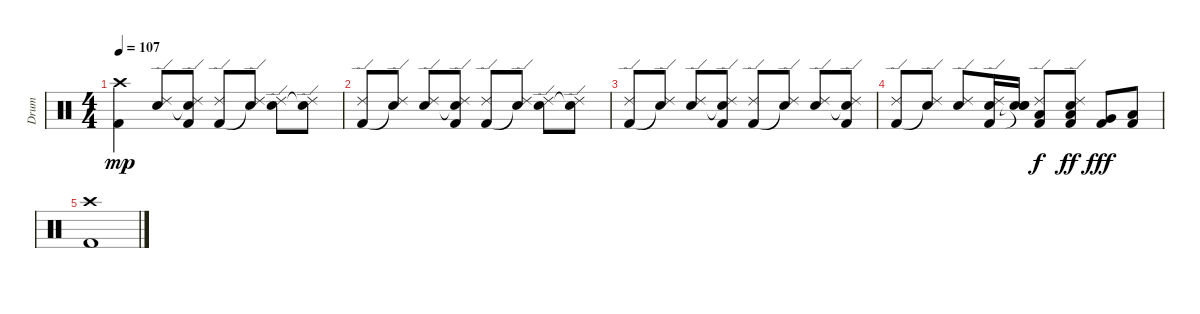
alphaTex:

\track ("Drum" "Drum") {instrument percussion}
\staff {score}
\articulation defaults
\ts (4 4)
\tempo 107
\clef neutral
\ks c
("Kick (hit) 2" "Crash high (hit)").4{dy mp} ("Electric Snare (hit)" "Ride (edge) 2").8 ("Snare (hit)"{t} "Kick (hit) 2" "Ride (edge) 2").8 ("Kick (hit) 2" "Ride (edge) 2").8 ("Snare (hit)"{t} "Ride (edge) 2").8 ("Electric Snare (hit)" "Ride (edge) 2").8 ("Snare (hit)"{t} "Ride (edge) 2").8 |
("Kick (hit) 2" "Ride (edge) 2").8 ("Snare (hit)"{t} "Ride (edge) 2").8 ("Electric Snare (hit)" "Ride (edge) 2").8 ("Snare (hit)"{t} "Kick (hit) 2" "Ride (edge) 2").8 ("Kick (hit) 2" "Ride (edge) 2").8 ("Snare (hit)"{t} "Ride (edge) 2").8 ("Electric Snare (hit)" "Ride (edge) 2").8 ("Snare (hit)"{t} "Ride (edge) 2").8 |
("Kick (hit) 2" "Ride (edge) 2").8 ("Snare (hit)"{t} "Ride (edge) 2").8 ("Electric Snare (hit)" "Ride (edge) 2").8 ("Snare (hit)"{t} "Kick (hit) 2" "Ride (edge) 2").8 ("Kick (hit) 2" "Ride (edge) 2").8 ("Snare (hit)"{t} "Ride (edge) 2").8 ("Electric Snare (hit)" "Ride (edge) 2").8 ("Snare (hit)"{t} "Kick (hit) 2" "Ride (edge) 2").8 |
("Kick (hit) 2" "Ride (edge) 2").8 ("Snare (hit)"{t} "Ride (edge) 2").8 ("Electric Snare (hit)" "Ride (edge) 2").8 ("Electric Snare (hit)" "Kick (hit) 2" "Ride (edge) 2").16 ("Electric Snare (hit)" "Snare (hit)"{t} "Snare (hit)"{t}).16 ("Kick (hit) 2" "Ride (edge) 2" "Low Floor Tom (hit)").8{dy f} ("Electric Snare (hit)" "Kick (hit) 2" "Ride (edge) 2" "Low Tom (hit)").8{dy ff} ("Kick (hit) 2" "Very Low Tom (hit)").8{dy fff} ("Kick (hit) 2" "Low Floor Tom (hit)").8 |
("Kick (hit) 2" "Crash high (hit)").1
